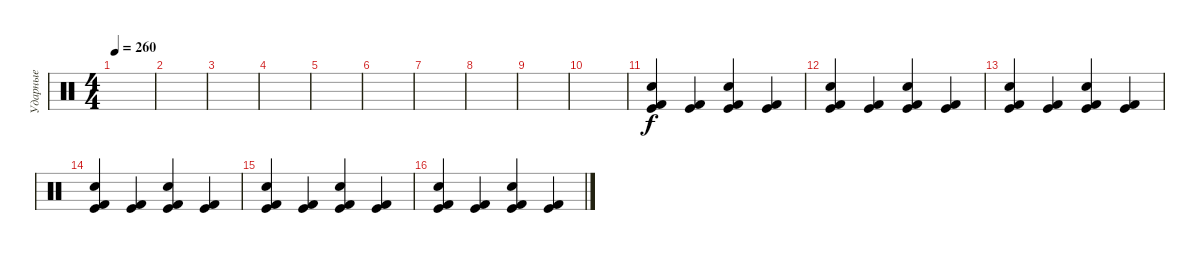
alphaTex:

\track ("Ударные" "Ударные") {instrument percussion}
\staff {score}
\articulation defaults
\ts (4 4)
\tempo 260
\clef neutral
\ks c
|
|
|
|
|
|
|
|
|
|
("Kick (hit) 2" "Kick (hit)" "Snare (hit) 2").4 ("Kick (hit)" "Kick (hit) 2").4 ("Kick (hit) 2" "Kick (hit)" "Snare (hit) 2").4 ("Kick (hit)" "Kick (hit) 2").4 |
("Kick (hit) 2" "Kick (hit)" "Snare (hit) 2").4 ("Kick (hit)" "Kick (hit) 2").4 ("Kick (hit) 2" "Kick (hit)" "Snare (hit) 2").4 ("Kick (hit)" "Kick (hit) 2").4 |
("Kick (hit) 2" "Kick (hit)" "Snare (hit) 2").4 ("Kick (hit)" "Kick (hit) 2").4 ("Kick (hit) 2" "Kick (hit)" "Snare (hit) 2").4 ("Kick (hit)" "Kick (hit) 2").4 |
("Kick (hit) 2" "Kick (hit)" "Snare (hit) 2").4 ("Kick (hit)" "Kick (hit) 2").4 ("Kick (hit) 2" "Kick (hit)" "Snare (hit) 2").4 ("Kick (hit)" "Kick (hit) 2").4 |
("Kick (hit) 2" "Kick (hit)" "Snare (hit) 2").4 ("Kick (hit)" "Kick (hit) 2").4 ("Kick (hit) 2" "Kick (hit)" "Snare (hit) 2").4 ("Kick (hit)" "Kick (hit) 2").4 |
("Kick (hit) 2" "Kick (hit)" "Snare (hit) 2").4 ("Kick (hit)" "Kick (hit) 2").4 ("Kick (hit) 2" "Kick (hit)" "Snare (hit) 2").4 ("Kick (hit)" "Kick (hit) 2").4
